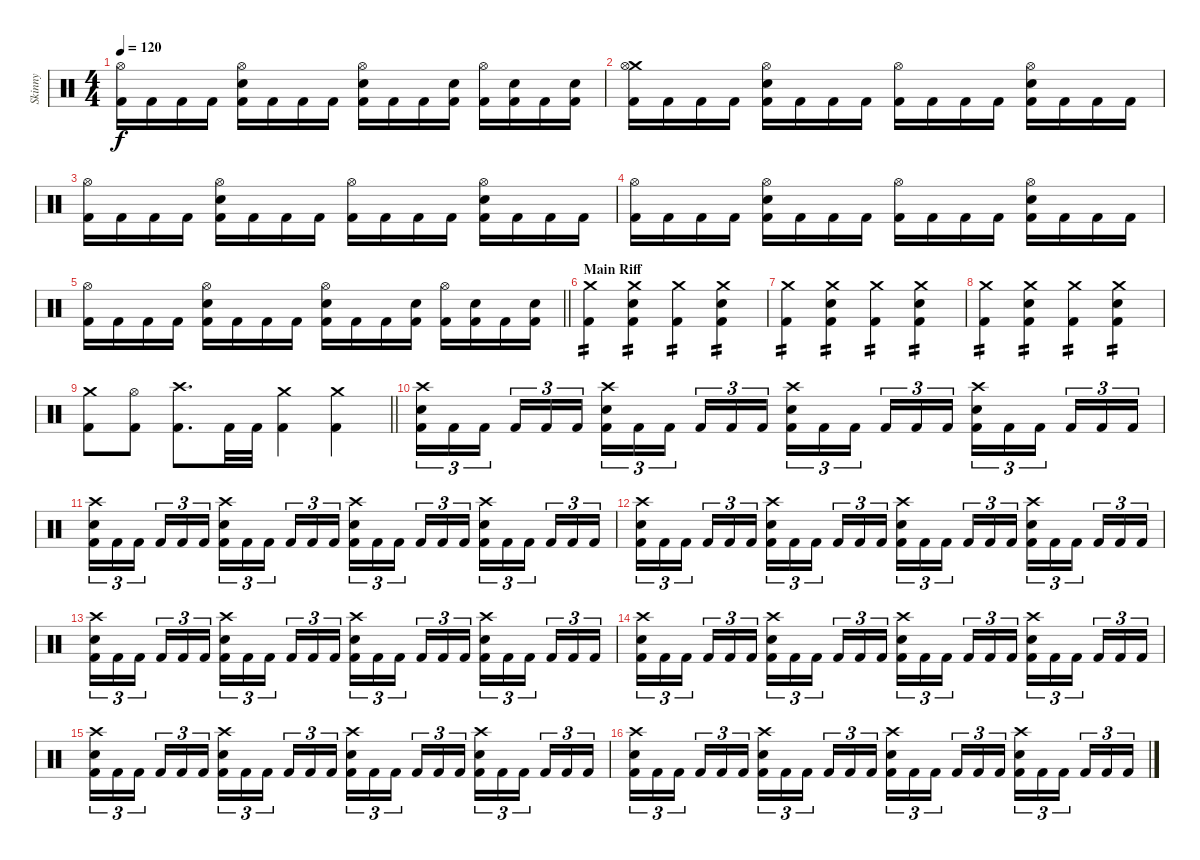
\track ("Skinny" "Skinny") {instrument percussion}
\staff {score}
\articulation defaults
\ts (4 4)
\tempo 120
\clef neutral
\ks c
("Hi-Hat (open)" "Kick (hit) 2").16{dy f} "Kick (hit) 2".16 "Kick (hit) 2".16 "Kick (hit) 2".16 ("Hi-Hat (open)" "Electric Snare (hit)" "Kick (hit) 2").16 "Kick (hit) 2".16 "Kick (hit) 2".16 "Kick (hit) 2".16 ("Hi-Hat (open)" "Electric Snare (hit)" "Kick (hit) 2").16 "Kick (hit) 2".16 "Kick (hit) 2".16 ("Electric Snare (hit)" "Kick (hit) 2").16 ("Hi-Hat (open)" "Kick (hit) 2").16 ("Electric Snare (hit)" "Kick (hit) 2").16 "Kick (hit) 2".16 ("Electric Snare (hit)" "Kick (hit) 2").16 |
("Crash medium (hit)" "Hi-Hat (open)" "Kick (hit) 2").16 "Kick (hit) 2".16 "Kick (hit) 2".16 "Kick (hit) 2".16 ("Hi-Hat (open)" "Electric Snare (hit)" "Kick (hit) 2").16 "Kick (hit) 2".16 "Kick (hit) 2".16 "Kick (hit) 2".16 ("Hi-Hat (open)" "Kick (hit) 2").16 "Kick (hit) 2".16 "Kick (hit) 2".16 "Kick (hit) 2".16 ("Hi-Hat (open)" "Electric Snare (hit)" "Kick (hit) 2").16 "Kick (hit) 2".16 "Kick (hit) 2".16 "Kick (hit) 2".16 |
("Hi-Hat (open)" "Kick (hit) 2").16 "Kick (hit) 2".16 "Kick (hit) 2".16 "Kick (hit) 2".16 ("Hi-Hat (open)" "Electric Snare (hit)" "Kick (hit) 2").16 "Kick (hit) 2".16 "Kick (hit) 2".16 "Kick (hit) 2".16 ("Hi-Hat (open)" "Kick (hit) 2").16 "Kick (hit) 2".16 "Kick (hit) 2".16 "Kick (hit) 2".16 ("Hi-Hat (open)" "Electric Snare (hit)" "Kick (hit) 2").16 "Kick (hit) 2".16 "Kick (hit) 2".16 "Kick (hit) 2".16 |
("Hi-Hat (open)" "Kick (hit) 2").16 "Kick (hit) 2".16 "Kick (hit) 2".16 "Kick (hit) 2".16 ("Hi-Hat (open)" "Electric Snare (hit)" "Kick (hit) 2").16 "Kick (hit) 2".16 "Kick (hit) 2".16 "Kick (hit) 2".16 ("Hi-Hat (open)" "Kick (hit) 2").16 "Kick (hit) 2".16 "Kick (hit) 2".16 "Kick (hit) 2".16 ("Hi-Hat (open)" "Electric Snare (hit)" "Kick (hit) 2").16 "Kick (hit) 2".16 "Kick (hit) 2".16 "Kick (hit) 2".16 |
\barLineRight lightlight
("Hi-Hat (open)" "Kick (hit) 2").16 "Kick (hit) 2".16 "Kick (hit) 2".16 "Kick (hit) 2".16 ("Hi-Hat (open)" "Electric Snare (hit)" "Kick (hit) 2").16 "Kick (hit) 2".16 "Kick (hit) 2".16 "Kick (hit) 2".16 ("Hi-Hat (open)" "Electric Snare (hit)" "Kick (hit) 2").16 "Kick (hit) 2".16 "Kick (hit) 2".16 ("Electric Snare (hit)" "Kick (hit) 2").16 ("Hi-Hat (open)" "Kick (hit) 2").16 ("Electric Snare (hit)" "Kick (hit) 2").16 "Kick (hit) 2".16 ("Electric Snare (hit)" "Kick (hit) 2").16 |
\section ("" "Main Riff")
("Crash medium (hit)" "Kick (hit) 2").4{tp 2} ("Crash medium (hit)" "Electric Snare (hit)" "Kick (hit) 2").4{tp 2} ("Crash medium (hit)" "Kick (hit) 2").4{tp 2} ("Crash medium (hit)" "Electric Snare (hit)" "Kick (hit) 2").4{tp 2} |
("Crash medium (hit)" "Kick (hit) 2").4{tp 2} ("Crash medium (hit)" "Electric Snare (hit)" "Kick (hit) 2").4{tp 2} ("Crash medium (hit)" "Kick (hit) 2").4{tp 2} ("Crash medium (hit)" "Electric Snare (hit)" "Kick (hit) 2").4{tp 2} |
("Crash medium (hit)" "Kick (hit) 2").4{tp 2} ("Crash medium (hit)" "Electric Snare (hit)" "Kick (hit) 2").4{tp 2} ("Crash medium (hit)" "Kick (hit) 2").4{tp 2} ("Crash medium (hit)" "Electric Snare (hit)" "Kick (hit) 2").4{tp 2} |
\barLineRight lightlight
("Crash medium (hit)" "Kick (hit) 2").8 ("Hi-Hat (open)" "Kick (hit) 2").8 ("Crash high (hit)" "Kick (hit) 2").8{d} "Kick (hit) 2".32 "Kick (hit) 2".32 ("Crash medium (hit)" "Kick (hit) 2").4 ("Crash medium (hit)" "Kick (hit) 2").4 |
("Crash high (hit)" "Electric Snare (hit)" "Kick (hit) 2").16{tu (3 2)} "Kick (hit) 2".16{tu (3 2)} "Kick (hit) 2".16{tu (3 2) beam splitsecondary} "Kick (hit) 2".16{tu (3 2)} "Kick (hit) 2".16{tu (3 2)} "Kick (hit) 2".16{tu (3 2)} ("Crash high (hit)" "Electric Snare (hit)" "Kick (hit) 2").16{tu (3 2)} "Kick (hit) 2".16{tu (3 2)} "Kick (hit) 2".16{tu (3 2) beam splitsecondary} "Kick (hit) 2".16{tu (3 2)} "Kick (hit) 2".16{tu (3 2)} "Kick (hit) 2".16{tu (3 2)} ("Crash high (hit)" "Electric Snare (hit)" "Kick (hit) 2").16{tu (3 2)} "Kick (hit) 2".16{tu (3 2)} "Kick (hit) 2".16{tu (3 2) beam splitsecondary} "Kick (hit) 2".16{tu (3 2)} "Kick (hit) 2".16{tu (3 2)} "Kick (hit) 2".16{tu (3 2)} ("Crash high (hit)" "Electric Snare (hit)" "Kick (hit) 2").16{tu (3 2)} "Kick (hit) 2".16{tu (3 2)} "Kick (hit) 2".16{tu (3 2) beam splitsecondary} "Kick (hit) 2".16{tu (3 2)} "Kick (hit) 2".16{tu (3 2)} "Kick (hit) 2".16{tu (3 2)} |
("Crash high (hit)" "Electric Snare (hit)" "Kick (hit) 2").16{tu (3 2)} "Kick (hit) 2".16{tu (3 2)} "Kick (hit) 2".16{tu (3 2) beam splitsecondary} "Kick (hit) 2".16{tu (3 2)} "Kick (hit) 2".16{tu (3 2)} "Kick (hit) 2".16{tu (3 2)} ("Crash high (hit)" "Electric Snare (hit)" "Kick (hit) 2").16{tu (3 2)} "Kick (hit) 2".16{tu (3 2)} "Kick (hit) 2".16{tu (3 2) beam splitsecondary} "Kick (hit) 2".16{tu (3 2)} "Kick (hit) 2".16{tu (3 2)} "Kick (hit) 2".16{tu (3 2)} ("Crash high (hit)" "Electric Snare (hit)" "Kick (hit) 2").16{tu (3 2)} "Kick (hit) 2".16{tu (3 2)} "Kick (hit) 2".16{tu (3 2) beam splitsecondary} "Kick (hit) 2".16{tu (3 2)} "Kick (hit) 2".16{tu (3 2)} "Kick (hit) 2".16{tu (3 2)} ("Crash high (hit)" "Electric Snare (hit)" "Kick (hit) 2").16{tu (3 2)} "Kick (hit) 2".16{tu (3 2)} "Kick (hit) 2".16{tu (3 2) beam splitsecondary} "Kick (hit) 2".16{tu (3 2)} "Kick (hit) 2".16{tu (3 2)} "Kick (hit) 2".16{tu (3 2)} |
("Crash high (hit)" "Electric Snare (hit)" "Kick (hit) 2").16{tu (3 2)} "Kick (hit) 2".16{tu (3 2)} "Kick (hit) 2".16{tu (3 2) beam splitsecondary} "Kick (hit) 2".16{tu (3 2)} "Kick (hit) 2".16{tu (3 2)} "Kick (hit) 2".16{tu (3 2)} ("Crash high (hit)" "Electric Snare (hit)" "Kick (hit) 2").16{tu (3 2)} "Kick (hit) 2".16{tu (3 2)} "Kick (hit) 2".16{tu (3 2) beam splitsecondary} "Kick (hit) 2".16{tu (3 2)} "Kick (hit) 2".16{tu (3 2)} "Kick (hit) 2".16{tu (3 2)} ("Crash high (hit)" "Electric Snare (hit)" "Kick (hit) 2").16{tu (3 2)} "Kick (hit) 2".16{tu (3 2)} "Kick (hit) 2".16{tu (3 2) beam splitsecondary} "Kick (hit) 2".16{tu (3 2)} "Kick (hit) 2".16{tu (3 2)} "Kick (hit) 2".16{tu (3 2)} ("Crash high (hit)" "Electric Snare (hit)" "Kick (hit) 2").16{tu (3 2)} "Kick (hit) 2".16{tu (3 2)} "Kick (hit) 2".16{tu (3 2) beam splitsecondary} "Kick (hit) 2".16{tu (3 2)} "Kick (hit) 2".16{tu (3 2)} "Kick (hit) 2".16{tu (3 2)} |
("Crash high (hit)" "Electric Snare (hit)" "Kick (hit) 2").16{tu (3 2)} "Kick (hit) 2".16{tu (3 2)} "Kick (hit) 2".16{tu (3 2) beam splitsecondary} "Kick (hit) 2".16{tu (3 2)} "Kick (hit) 2".16{tu (3 2)} "Kick (hit) 2".16{tu (3 2)} ("Crash high (hit)" "Electric Snare (hit)" "Kick (hit) 2").16{tu (3 2)} "Kick (hit) 2".16{tu (3 2)} "Kick (hit) 2".16{tu (3 2) beam splitsecondary} "Kick (hit) 2".16{tu (3 2)} "Kick (hit) 2".16{tu (3 2)} "Kick (hit) 2".16{tu (3 2)} ("Crash high (hit)" "Electric Snare (hit)" "Kick (hit) 2").16{tu (3 2)} "Kick (hit) 2".16{tu (3 2)} "Kick (hit) 2".16{tu (3 2) beam splitsecondary} "Kick (hit) 2".16{tu (3 2)} "Kick (hit) 2".16{tu (3 2)} "Kick (hit) 2".16{tu (3 2)} ("Crash high (hit)" "Electric Snare (hit)" "Kick (hit) 2").16{tu (3 2)} "Kick (hit) 2".16{tu (3 2)} "Kick (hit) 2".16{tu (3 2) beam splitsecondary} "Kick (hit) 2".16{tu (3 2)} "Kick (hit) 2".16{tu (3 2)} "Kick (hit) 2".16{tu (3 2)} |
("Crash high (hit)" "Electric Snare (hit)" "Kick (hit) 2").16{tu (3 2)} "Kick (hit) 2".16{tu (3 2)} "Kick (hit) 2".16{tu (3 2) beam splitsecondary} "Kick (hit) 2".16{tu (3 2)} "Kick (hit) 2".16{tu (3 2)} "Kick (hit) 2".16{tu (3 2)} ("Crash high (hit)" "Electric Snare (hit)" "Kick (hit) 2").16{tu (3 2)} "Kick (hit) 2".16{tu (3 2)} "Kick (hit) 2".16{tu (3 2) beam splitsecondary} "Kick (hit) 2".16{tu (3 2)} "Kick (hit) 2".16{tu (3 2)} "Kick (hit) 2".16{tu (3 2)} ("Crash high (hit)" "Electric Snare (hit)" "Kick (hit) 2").16{tu (3 2)} "Kick (hit) 2".16{tu (3 2)} "Kick (hit) 2".16{tu (3 2) beam splitsecondary} "Kick (hit) 2".16{tu (3 2)} "Kick (hit) 2".16{tu (3 2)} "Kick (hit) 2".16{tu (3 2)} ("Crash high (hit)" "Electric Snare (hit)" "Kick (hit) 2").16{tu (3 2)} "Kick (hit) 2".16{tu (3 2)} "Kick (hit) 2".16{tu (3 2) beam splitsecondary} "Kick (hit) 2".16{tu (3 2)} "Kick (hit) 2".16{tu (3 2)} "Kick (hit) 2".16{tu (3 2)} |
("Crash high (hit)" "Electric Snare (hit)" "Kick (hit) 2").16{tu (3 2)} "Kick (hit) 2".16{tu (3 2)} "Kick (hit) 2".16{tu (3 2) beam splitsecondary} "Kick (hit) 2".16{tu (3 2)} "Kick (hit) 2".16{tu (3 2)} "Kick (hit) 2".16{tu (3 2)} ("Crash high (hit)" "Electric Snare (hit)" "Kick (hit) 2").16{tu (3 2)} "Kick (hit) 2".16{tu (3 2)} "Kick (hit) 2".16{tu (3 2) beam splitsecondary} "Kick (hit) 2".16{tu (3 2)} "Kick (hit) 2".16{tu (3 2)} "Kick (hit) 2".16{tu (3 2)} ("Crash high (hit)" "Electric Snare (hit)" "Kick (hit) 2").16{tu (3 2)} "Kick (hit) 2".16{tu (3 2)} "Kick (hit) 2".16{tu (3 2) beam splitsecondary} "Kick (hit) 2".16{tu (3 2)} "Kick (hit) 2".16{tu (3 2)} "Kick (hit) 2".16{tu (3 2)} ("Crash high (hit)" "Electric Snare (hit)" "Kick (hit) 2").16{tu (3 2)} "Kick (hit) 2".16{tu (3 2)} "Kick (hit) 2".16{tu (3 2) beam splitsecondary} "Kick (hit) 2".16{tu (3 2)} "Kick (hit) 2".16{tu (3 2)} "Kick (hit) 2".16{tu (3 2)} |
("Crash high (hit)" "Electric Snare (hit)" "Kick (hit) 2").16{tu (3 2)} "Kick (hit) 2".16{tu (3 2)} "Kick (hit) 2".16{tu (3 2) beam splitsecondary} "Kick (hit) 2".16{tu (3 2)} "Kick (hit) 2".16{tu (3 2)} "Kick (hit) 2".16{tu (3 2)} ("Crash high (hit)" "Electric Snare (hit)" "Kick (hit) 2").16{tu (3 2)} "Kick (hit) 2".16{tu (3 2)} "Kick (hit) 2".16{tu (3 2) beam splitsecondary} "Kick (hit) 2".16{tu (3 2)} "Kick (hit) 2".16{tu (3 2)} "Kick (hit) 2".16{tu (3 2)} ("Crash high (hit)" "Electric Snare (hit)" "Kick (hit) 2").16{tu (3 2)} "Kick (hit) 2".16{tu (3 2)} "Kick (hit) 2".16{tu (3 2) beam splitsecondary} "Kick (hit) 2".16{tu (3 2)} "Kick (hit) 2".16{tu (3 2)} "Kick (hit) 2".16{tu (3 2)} ("Crash high (hit)" "Electric Snare (hit)" "Kick (hit) 2").16{tu (3 2)} "Kick (hit) 2".16{tu (3 2)} "Kick (hit) 2".16{tu (3 2) beam splitsecondary} "Kick (hit) 2".16{tu (3 2)} "Kick (hit) 2".16{tu (3 2)} "Kick (hit) 2".16{tu (3 2)}
